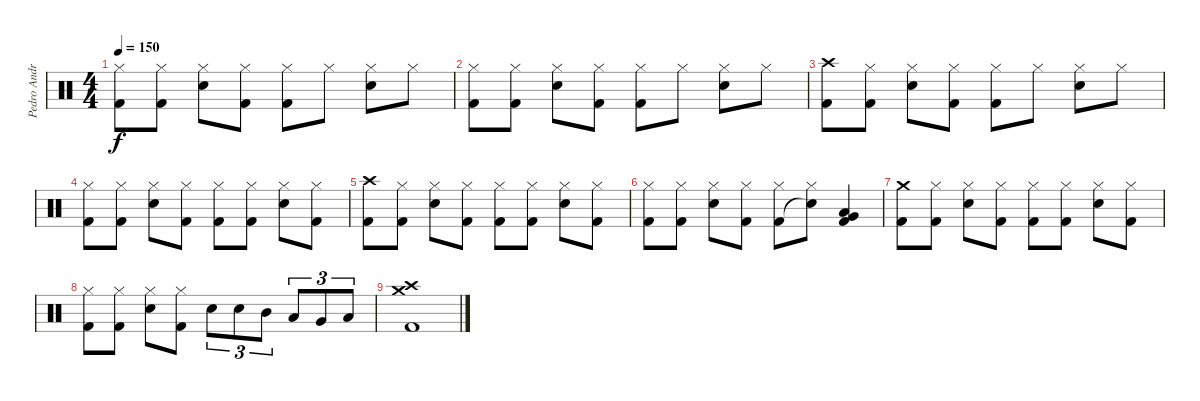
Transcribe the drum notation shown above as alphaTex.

\track ("Pedro Andreu" "Pedro Andr") {instrument percussion}
\staff {score}
\articulation defaults
\ts (4 4)
\tempo 150
\clef neutral
\ks c
("Hi-Hat (closed)" "Kick (hit) 2").8{dy f} ("Hi-Hat (closed)" "Kick (hit) 2").8 ("Hi-Hat (closed)" "Snare (hit) 2").8 ("Hi-Hat (closed)" "Kick (hit) 2").8 ("Hi-Hat (closed)" "Kick (hit) 2").8 "Hi-Hat (closed)".8 ("Hi-Hat (closed)" "Snare (hit) 2").8 "Hi-Hat (closed)".8 |
("Hi-Hat (closed)" "Kick (hit) 2").8 ("Hi-Hat (closed)" "Kick (hit) 2").8 ("Hi-Hat (closed)" "Snare (hit) 2").8 ("Hi-Hat (closed)" "Kick (hit) 2").8 ("Hi-Hat (closed)" "Kick (hit) 2").8 "Hi-Hat (closed)".8 ("Hi-Hat (closed)" "Snare (hit) 2").8 "Hi-Hat (closed)".8 |
("Crash high (hit)" "Kick (hit) 2").8 ("Hi-Hat (closed)" "Kick (hit) 2").8 ("Hi-Hat (closed)" "Snare (hit) 2").8 ("Hi-Hat (closed)" "Kick (hit) 2").8 ("Hi-Hat (closed)" "Kick (hit) 2").8 "Hi-Hat (closed)".8 ("Hi-Hat (closed)" "Snare (hit) 2").8 "Hi-Hat (closed)".8 |
("Hi-Hat (closed)" "Kick (hit) 2").8 ("Hi-Hat (closed)" "Kick (hit) 2").8 ("Hi-Hat (closed)" "Snare (hit) 2").8 ("Hi-Hat (closed)" "Kick (hit) 2").8 ("Hi-Hat (closed)" "Kick (hit) 2").8 ("Hi-Hat (closed)" "Kick (hit) 2").8 ("Hi-Hat (closed)" "Snare (hit) 2").8 ("Hi-Hat (closed)" "Kick (hit) 2").8 |
("Crash high (hit)" "Kick (hit) 2").8 ("Hi-Hat (closed)" "Kick (hit) 2").8 ("Hi-Hat (closed)" "Snare (hit) 2").8 ("Hi-Hat (closed)" "Kick (hit) 2").8 ("Hi-Hat (closed)" "Kick (hit) 2").8 ("Hi-Hat (closed)" "Kick (hit) 2").8 ("Hi-Hat (closed)" "Snare (hit) 2").8 ("Hi-Hat (closed)" "Kick (hit) 2").8 |
("Hi-Hat (closed)" "Kick (hit) 2").8 ("Hi-Hat (closed)" "Kick (hit) 2").8 ("Hi-Hat (closed)" "Snare (hit) 2").8 ("Hi-Hat (closed)" "Kick (hit) 2").8 ("Hi-Hat (closed)" "Kick (hit) 2").8 ("Hi-Hat (closed)" "Snare (hit) 2"{t}).8 ("Kick (hit) 2" "Very Low Tom (hit)" "Low Tom (hit)").4 |
("Crash medium (hit)" "Kick (hit) 2").8 ("Hi-Hat (closed)" "Kick (hit) 2").8 ("Hi-Hat (closed)" "Snare (hit) 2").8 ("Hi-Hat (closed)" "Kick (hit) 2").8 ("Hi-Hat (closed)" "Kick (hit) 2").8 ("Hi-Hat (closed)" "Kick (hit) 2").8 ("Hi-Hat (closed)" "Snare (hit) 2").8 ("Hi-Hat (closed)" "Kick (hit) 2").8 |
("Hi-Hat (closed)" "Kick (hit) 2").8 ("Hi-Hat (closed)" "Kick (hit) 2").8 ("Hi-Hat (closed)" "Snare (hit) 2").8 ("Hi-Hat (closed)" "Kick (hit) 2").8 "Snare (hit) 2".8{tu (3 2)} "Snare (hit) 2".8{tu (3 2)} "Mid Tom (hit)".8{tu (3 2)} "Low Tom (hit)".8{tu (3 2)} "Very Low Tom (hit)".8{tu (3 2)} "Low Floor Tom (hit)".8{tu (3 2)} |
("Crash medium (hit)" "Kick (hit) 2" "Crash high (hit)").1
